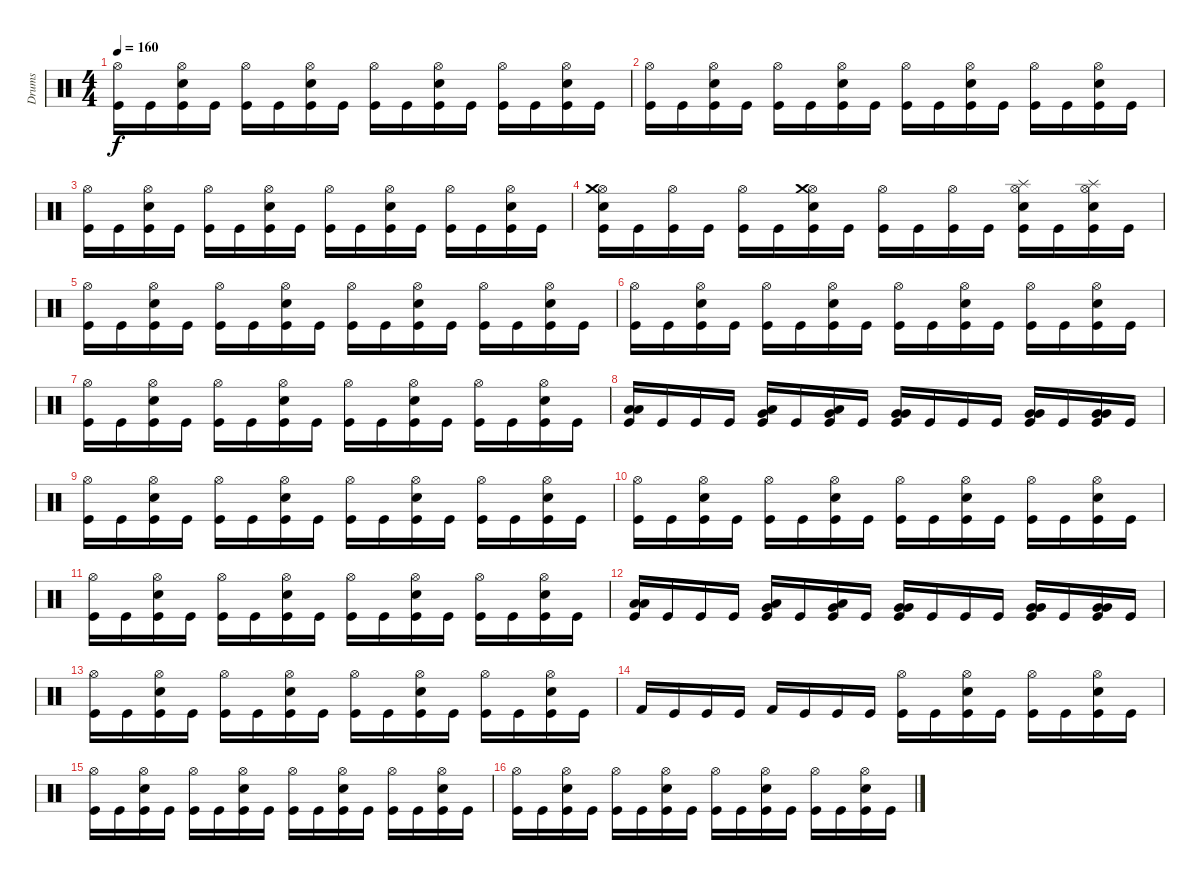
\track ("Drums" "Drums") {instrument percussion}
\staff {score}
\articulation defaults
\ts (4 4)
\tempo 160
\clef neutral
\ks c
("Kick (hit)" "Hi-Hat (open)").16{dy f} "Kick (hit)".16 ("Electric Snare (hit)" "Kick (hit)" "Hi-Hat (open)").16 "Kick (hit)".16 ("Kick (hit)" "Hi-Hat (open)").16 "Kick (hit)".16 ("Electric Snare (hit)" "Kick (hit)" "Hi-Hat (open)").16 "Kick (hit)".16 ("Kick (hit)" "Hi-Hat (open)").16 "Kick (hit)".16 ("Electric Snare (hit)" "Kick (hit)" "Hi-Hat (open)").16 "Kick (hit)".16 ("Kick (hit)" "Hi-Hat (open)").16 "Kick (hit)".16 ("Electric Snare (hit)" "Kick (hit)" "Hi-Hat (open)").16 "Kick (hit)".16 |
("Kick (hit)" "Hi-Hat (open)").16 "Kick (hit)".16 ("Electric Snare (hit)" "Kick (hit)" "Hi-Hat (open)").16 "Kick (hit)".16 ("Kick (hit)" "Hi-Hat (open)").16 "Kick (hit)".16 ("Electric Snare (hit)" "Kick (hit)" "Hi-Hat (open)").16 "Kick (hit)".16 ("Kick (hit)" "Hi-Hat (open)").16 "Kick (hit)".16 ("Electric Snare (hit)" "Kick (hit)" "Hi-Hat (open)").16 "Kick (hit)".16 ("Kick (hit)" "Hi-Hat (open)").16 "Kick (hit)".16 ("Electric Snare (hit)" "Kick (hit)" "Hi-Hat (open)").16 "Kick (hit)".16 |
("Kick (hit)" "Hi-Hat (open)").16 "Kick (hit)".16 ("Electric Snare (hit)" "Kick (hit)" "Hi-Hat (open)").16 "Kick (hit)".16 ("Kick (hit)" "Hi-Hat (open)").16 "Kick (hit)".16 ("Electric Snare (hit)" "Kick (hit)" "Hi-Hat (open)").16 "Kick (hit)".16 ("Kick (hit)" "Hi-Hat (open)").16 "Kick (hit)".16 ("Electric Snare (hit)" "Kick (hit)" "Hi-Hat (open)").16 "Kick (hit)".16 ("Kick (hit)" "Hi-Hat (open)").16 "Kick (hit)".16 ("Electric Snare (hit)" "Kick (hit)" "Hi-Hat (open)").16 "Kick (hit)".16 |
("Electric Snare (hit)" "Kick (hit)" "Hi-Hat (open)" "Crash medium (hit)").16 "Kick (hit)".16 ("Kick (hit)" "Hi-Hat (open)").16 "Kick (hit)".16 ("Kick (hit)" "Hi-Hat (open)").16 "Kick (hit)".16 ("Electric Snare (hit)" "Kick (hit)" "Hi-Hat (open)" "Crash medium (hit)").16 "Kick (hit)".16 ("Kick (hit)" "Hi-Hat (open)").16 "Kick (hit)".16 ("Kick (hit)" "Hi-Hat (open)").16 "Kick (hit)".16 ("Electric Snare (hit)" "Kick (hit)" "Hi-Hat (open)" "Splash (hit)").16 "Kick (hit)".16 ("Electric Snare (hit)" "Kick (hit)" "Hi-Hat (open)" "Splash (hit)").16 "Kick (hit)".16 |
("Kick (hit)" "Hi-Hat (open)").16 "Kick (hit)".16 ("Electric Snare (hit)" "Kick (hit)" "Hi-Hat (open)").16 "Kick (hit)".16 ("Kick (hit)" "Hi-Hat (open)").16 "Kick (hit)".16 ("Electric Snare (hit)" "Kick (hit)" "Hi-Hat (open)").16 "Kick (hit)".16 ("Kick (hit)" "Hi-Hat (open)").16 "Kick (hit)".16 ("Electric Snare (hit)" "Kick (hit)" "Hi-Hat (open)").16 "Kick (hit)".16 ("Kick (hit)" "Hi-Hat (open)").16 "Kick (hit)".16 ("Electric Snare (hit)" "Kick (hit)" "Hi-Hat (open)").16 "Kick (hit)".16 |
("Kick (hit)" "Hi-Hat (open)").16 "Kick (hit)".16 ("Electric Snare (hit)" "Kick (hit)" "Hi-Hat (open)").16 "Kick (hit)".16 ("Kick (hit)" "Hi-Hat (open)").16 "Kick (hit)".16 ("Electric Snare (hit)" "Kick (hit)" "Hi-Hat (open)").16 "Kick (hit)".16 ("Kick (hit)" "Hi-Hat (open)").16 "Kick (hit)".16 ("Electric Snare (hit)" "Kick (hit)" "Hi-Hat (open)").16 "Kick (hit)".16 ("Kick (hit)" "Hi-Hat (open)").16 "Kick (hit)".16 ("Electric Snare (hit)" "Kick (hit)" "Hi-Hat (open)").16 "Kick (hit)".16 |
("Kick (hit)" "Hi-Hat (open)").16 "Kick (hit)".16 ("Electric Snare (hit)" "Kick (hit)" "Hi-Hat (open)").16 "Kick (hit)".16 ("Kick (hit)" "Hi-Hat (open)").16 "Kick (hit)".16 ("Electric Snare (hit)" "Kick (hit)" "Hi-Hat (open)").16 "Kick (hit)".16 ("Kick (hit)" "Hi-Hat (open)").16 "Kick (hit)".16 ("Electric Snare (hit)" "Kick (hit)" "Hi-Hat (open)").16 "Kick (hit)".16 ("Kick (hit)" "Hi-Hat (open)").16 "Kick (hit)".16 ("Electric Snare (hit)" "Kick (hit)" "Hi-Hat (open)").16 "Kick (hit)".16 |
("Low Floor Tom (hit)" "Kick (hit)" "Low Floor Tom (hit)").16 "Kick (hit)".16 "Kick (hit)".16 "Kick (hit)".16 ("Low Floor Tom (hit)" "Kick (hit)" "Very Low Tom (hit)").16 "Kick (hit)".16 ("Low Floor Tom (hit)" "Kick (hit)" "Very Low Tom (hit)").16 "Kick (hit)".16 ("Very Low Tom (hit)" "Kick (hit)" "Very Low Tom (hit)").16 "Kick (hit)".16 "Kick (hit)".16 "Kick (hit)".16 ("Very Low Tom (hit)" "Kick (hit)" "Very Low Tom (hit)").16 "Kick (hit)".16 ("Very Low Tom (hit)" "Kick (hit)" "Very Low Tom (hit)").16 "Kick (hit)".16 |
("Kick (hit)" "Hi-Hat (open)").16 "Kick (hit)".16 ("Electric Snare (hit)" "Kick (hit)" "Hi-Hat (open)").16 "Kick (hit)".16 ("Kick (hit)" "Hi-Hat (open)").16 "Kick (hit)".16 ("Electric Snare (hit)" "Kick (hit)" "Hi-Hat (open)").16 "Kick (hit)".16 ("Kick (hit)" "Hi-Hat (open)").16 "Kick (hit)".16 ("Electric Snare (hit)" "Kick (hit)" "Hi-Hat (open)").16 "Kick (hit)".16 ("Kick (hit)" "Hi-Hat (open)").16 "Kick (hit)".16 ("Electric Snare (hit)" "Kick (hit)" "Hi-Hat (open)").16 "Kick (hit)".16 |
("Kick (hit)" "Hi-Hat (open)").16 "Kick (hit)".16 ("Electric Snare (hit)" "Kick (hit)" "Hi-Hat (open)").16 "Kick (hit)".16 ("Kick (hit)" "Hi-Hat (open)").16 "Kick (hit)".16 ("Electric Snare (hit)" "Kick (hit)" "Hi-Hat (open)").16 "Kick (hit)".16 ("Kick (hit)" "Hi-Hat (open)").16 "Kick (hit)".16 ("Electric Snare (hit)" "Kick (hit)" "Hi-Hat (open)").16 "Kick (hit)".16 ("Kick (hit)" "Hi-Hat (open)").16 "Kick (hit)".16 ("Electric Snare (hit)" "Kick (hit)" "Hi-Hat (open)").16 "Kick (hit)".16 |
("Kick (hit)" "Hi-Hat (open)").16 "Kick (hit)".16 ("Electric Snare (hit)" "Kick (hit)" "Hi-Hat (open)").16 "Kick (hit)".16 ("Kick (hit)" "Hi-Hat (open)").16 "Kick (hit)".16 ("Electric Snare (hit)" "Kick (hit)" "Hi-Hat (open)").16 "Kick (hit)".16 ("Kick (hit)" "Hi-Hat (open)").16 "Kick (hit)".16 ("Electric Snare (hit)" "Kick (hit)" "Hi-Hat (open)").16 "Kick (hit)".16 ("Kick (hit)" "Hi-Hat (open)").16 "Kick (hit)".16 ("Electric Snare (hit)" "Kick (hit)" "Hi-Hat (open)").16 "Kick (hit)".16 |
("Low Floor Tom (hit)" "Kick (hit)" "Low Floor Tom (hit)").16 "Kick (hit)".16 "Kick (hit)".16 "Kick (hit)".16 ("Low Floor Tom (hit)" "Kick (hit)" "Very Low Tom (hit)").16 "Kick (hit)".16 ("Low Floor Tom (hit)" "Kick (hit)" "Very Low Tom (hit)").16 "Kick (hit)".16 ("Very Low Tom (hit)" "Kick (hit)" "Very Low Tom (hit)").16 "Kick (hit)".16 "Kick (hit)".16 "Kick (hit)".16 ("Very Low Tom (hit)" "Kick (hit)" "Very Low Tom (hit)").16 "Kick (hit)".16 ("Very Low Tom (hit)" "Kick (hit)" "Very Low Tom (hit)").16 "Kick (hit)".16 |
("Kick (hit)" "Hi-Hat (open)").16 "Kick (hit)".16 ("Electric Snare (hit)" "Kick (hit)" "Hi-Hat (open)").16 "Kick (hit)".16 ("Kick (hit)" "Hi-Hat (open)").16 "Kick (hit)".16 ("Electric Snare (hit)" "Kick (hit)" "Hi-Hat (open)").16 "Kick (hit)".16 ("Kick (hit)" "Hi-Hat (open)").16 "Kick (hit)".16 ("Electric Snare (hit)" "Kick (hit)" "Hi-Hat (open)").16 "Kick (hit)".16 ("Kick (hit)" "Hi-Hat (open)").16 "Kick (hit)".16 ("Electric Snare (hit)" "Kick (hit)" "Hi-Hat (open)").16 "Kick (hit)".16 |
"Kick (hit) 2".16 "Kick (hit)".16 "Kick (hit)".16 "Kick (hit)".16 "Kick (hit) 2".16 "Kick (hit)".16 "Kick (hit)".16 "Kick (hit)".16 ("Kick (hit)" "Hi-Hat (open)").16 "Kick (hit)".16 ("Electric Snare (hit)" "Kick (hit)" "Hi-Hat (open)").16 "Kick (hit)".16 ("Kick (hit)" "Hi-Hat (open)").16 "Kick (hit)".16 ("Electric Snare (hit)" "Kick (hit)" "Hi-Hat (open)").16 "Kick (hit)".16 |
("Kick (hit)" "Hi-Hat (open)").16 "Kick (hit)".16 ("Electric Snare (hit)" "Kick (hit)" "Hi-Hat (open)").16 "Kick (hit)".16 ("Kick (hit)" "Hi-Hat (open)").16 "Kick (hit)".16 ("Electric Snare (hit)" "Kick (hit)" "Hi-Hat (open)").16 "Kick (hit)".16 ("Kick (hit)" "Hi-Hat (open)").16 "Kick (hit)".16 ("Electric Snare (hit)" "Kick (hit)" "Hi-Hat (open)").16 "Kick (hit)".16 ("Kick (hit)" "Hi-Hat (open)").16 "Kick (hit)".16 ("Electric Snare (hit)" "Kick (hit)" "Hi-Hat (open)").16 "Kick (hit)".16 |
("Kick (hit)" "Hi-Hat (open)").16 "Kick (hit)".16 ("Electric Snare (hit)" "Kick (hit)" "Hi-Hat (open)").16 "Kick (hit)".16 ("Kick (hit)" "Hi-Hat (open)").16 "Kick (hit)".16 ("Electric Snare (hit)" "Kick (hit)" "Hi-Hat (open)").16 "Kick (hit)".16 ("Kick (hit)" "Hi-Hat (open)").16 "Kick (hit)".16 ("Electric Snare (hit)" "Kick (hit)" "Hi-Hat (open)").16 "Kick (hit)".16 ("Kick (hit)" "Hi-Hat (open)").16 "Kick (hit)".16 ("Electric Snare (hit)" "Kick (hit)" "Hi-Hat (open)").16 "Kick (hit)".16
